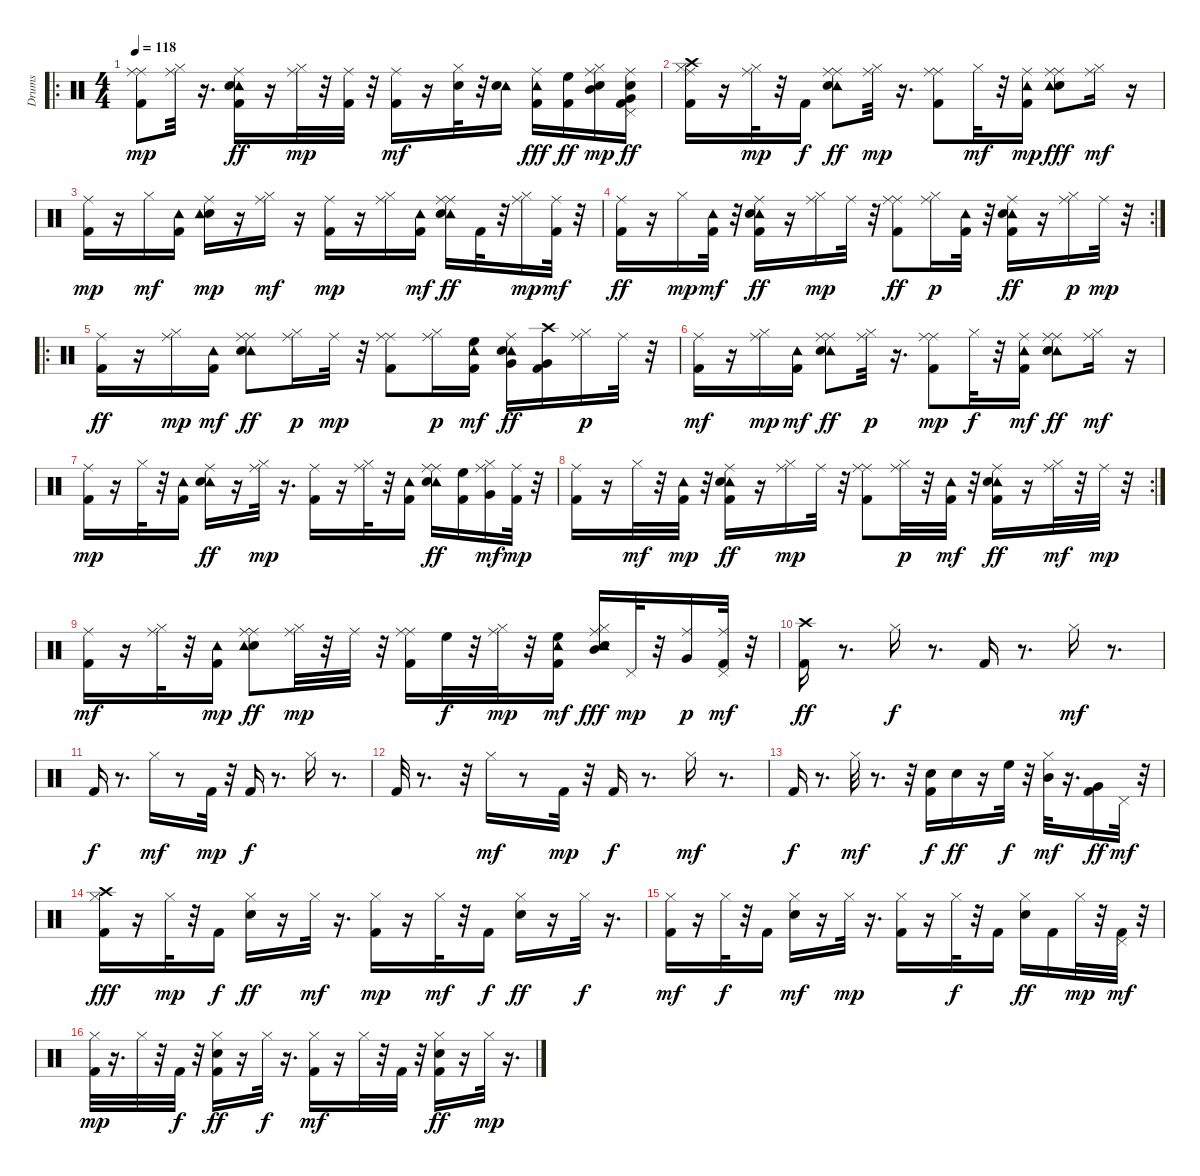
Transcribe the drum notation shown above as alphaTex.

\track ("Drums" "Drums") {instrument percussion}
\staff {score}
\articulation defaults
\ro
\ts (4 4)
\tempo 118
\clef neutral
\ks c
("Kick (hit) 2" "Ride (middle)" "Ride (middle)").8{dy mp} ("Ride (middle)" "Hi-Hat (closed)").32 r.16{d} ("Ride (middle)" "Tambourine (hit)" "Kick (hit) 2" "Electric Snare (hit)").16{dy ff} r.16 ("Hi-Hat (closed)" "Ride (middle)").32{dy mp} r.32 ("Ride (middle)" "Kick (hit) 2").32 r.32 ("Kick (hit) 2" "Ride (middle)").16{dy mf} r.16 ("Hi-Hat (closed)" "Electric Snare (hit)").32 r.32 ("Tambourine (hit)" "Electric Snare (hit)").16 ("Kick (hit) 2" "Ride (middle)" "Tambourine (hit)").16{dy fff} ("Kick (hit) 2" "High Floor Tom (hit)").16{dy ff} ("Mid Tom (hit)" "Ride (middle)" "Hi-Hat (closed)" "Electric Snare (hit)").16{dy mp} ("Ride (middle)" "Kick (hit) 2" "Pedal Hi-Hat (hit)" "Electric Snare (hit)" "Very Low Tom (hit)").16{dy ff} |
("Hi-Hat (closed)" "Kick (hit) 2" "Ride (middle)" "Crash high (hit)").16 r.16 ("Ride (middle)" "Hi-Hat (closed)").32{dy mp} r.32 "Kick (hit) 2".16{dy f} ("Ride (middle)" "Tambourine (hit)" "Ride (middle)" "Electric Snare (hit)").8{dy ff} ("Ride (middle)" "Hi-Hat (closed)").32{dy mp} r.16{d} ("Ride (middle)" "Kick (hit) 2" "Ride (middle)").8 "Hi-Hat (closed)".32{dy mf} r.32 ("Kick (hit) 2" "Ride (middle)" "Tambourine (hit)").16{dy mp} ("Ride (middle)" "Ride (middle)" "Electric Snare (hit)" "Tambourine (hit)").8{dy fff} ("Ride (middle)" "Hi-Hat (closed)").16{dy mf} r.16 |
("Kick (hit) 2" "Ride (middle)").16{dy mp} r.16 "Hi-Hat (closed)".16{dy mf} ("Kick (hit) 2" "Tambourine (hit)").16 ("Electric Snare (hit)" "Tambourine (hit)" "Ride (middle)").16{dy mp} r.16 ("Ride (middle)" "Hi-Hat (closed)").16{dy mf} r.16 ("Kick (hit) 2" "Ride (middle)").16{dy mp} r.16 ("Hi-Hat (closed)" "Ride (middle)").16 ("Kick (hit) 2" "Tambourine (hit)").16{dy mf} ("Ride (middle)" "Ride (middle)" "Tambourine (hit)" "Electric Snare (hit)").16{dy ff} "Kick (hit) 2".32 r.32 ("Hi-Hat (closed)" "Ride (middle)").16{dy mp} ("Ride (middle)" "Kick (hit) 2").32{dy mf} r.32 |
\rc 2
("Ride (middle)" "Kick (hit) 2").16{dy ff} r.16 "Hi-Hat (closed)".16{dy mp} ("Kick (hit) 2" "Tambourine (hit)").32{dy mf} r.32 ("Ride (middle)" "Kick (hit) 2" "Tambourine (hit)" "Electric Snare (hit)").16{dy ff} r.16 ("Hi-Hat (closed)" "Ride (middle)").16{dy mp} "Ride (middle)".32 r.32 ("Ride (middle)" "Ride (middle)" "Kick (hit) 2").8{dy ff} ("Ride (middle)" "Hi-Hat (closed)").16{dy p} ("Kick (hit) 2" "Tambourine (hit)").32 r.32 ("Kick (hit) 2" "Tambourine (hit)" "Ride (middle)" "Electric Snare (hit)").16{dy ff} r.16 ("Hi-Hat (closed)" "Ride (middle)").16{dy p} "Ride (middle)".32{dy mp} r.32 |
\ro
("Ride (middle)" "Kick (hit) 2").16{dy ff} r.16 ("Ride (middle)" "Hi-Hat (closed)").16{dy mp} ("Kick (hit) 2" "Tambourine (hit)").16{dy mf} ("Ride (middle)" "Ride (middle)" "Tambourine (hit)" "Electric Snare (hit)").8{dy ff} ("Hi-Hat (closed)" "Ride (middle)").16{dy p} "Ride (middle)".32{dy mp} r.32 ("Ride (middle)" "Kick (hit) 2" "Ride (middle)").8 ("Hi-Hat (closed)" "Ride (middle)").16{dy p} ("Kick (hit) 2" "Tambourine (hit)" "High Floor Tom (hit)").16{dy mf} ("Very Low Tom (hit)" "Ride (middle)" "Tambourine (hit)" "Electric Snare (hit)").16{dy ff} ("Kick (hit) 2" "Very Low Tom (hit)" "Crash high (hit)").16 ("Hi-Hat (closed)" "Ride (middle)").16{dy p} "Ride (middle)".32 r.32 |
("Ride (middle)" "Kick (hit) 2").16{dy mf} r.16 ("Hi-Hat (closed)" "Ride (middle)").16{dy mp} ("Kick (hit) 2" "Tambourine (hit)").16{dy mf} ("Ride (middle)" "Ride (middle)" "Tambourine (hit)" "Electric Snare (hit)").8{dy ff} ("Hi-Hat (closed)" "Ride (middle)").32{dy p} r.16{d} ("Kick (hit) 2" "Ride (middle)" "Ride (middle)").8{dy mp} "Hi-Hat (closed)".32{dy f} r.32 ("Ride (middle)" "Kick (hit) 2" "Tambourine (hit)").16{dy mf} ("Ride (middle)" "Ride (middle)" "Tambourine (hit)" "Electric Snare (hit)").8{dy ff} ("Ride (middle)" "Hi-Hat (closed)").16{dy mf} r.16 |
("Kick (hit) 2" "Ride (middle)").16{dy mp} r.16 "Hi-Hat (closed)".32 r.32 ("Kick (hit) 2" "Tambourine (hit)").16 ("Tambourine (hit)" "Ride (middle)" "Electric Snare (hit)").16{dy ff} r.16 ("Ride (middle)" "Hi-Hat (closed)").32{dy mp} r.16{d} ("Ride (middle)" "Kick (hit) 2").16 r.16 ("Ride (middle)" "Hi-Hat (closed)").32 r.32 ("Kick (hit) 2" "Tambourine (hit)").16 ("Ride (middle)" "Ride (middle)" "Tambourine (hit)" "Electric Snare (hit)").16{dy ff} ("Kick (hit) 2" "High Floor Tom (hit)").16 ("Ride (middle)" "Very Low Tom (hit)" "Hi-Hat (closed)").16{dy mf} ("Ride (middle)" "Kick (hit) 2").32{dy mp} r.32 |
\rc 2
("Kick (hit) 2" "Ride (middle)").16 r.16 "Hi-Hat (closed)".32{dy mf} r.32 ("Kick (hit) 2" "Tambourine (hit)").32{dy mp} r.32 ("Kick (hit) 2" "Ride (middle)" "Tambourine (hit)" "Electric Snare (hit)").16{dy ff} r.16 ("Ride (middle)" "Hi-Hat (closed)").16{dy mp} "Ride (middle)".32 r.32 ("Ride (middle)" "Kick (hit) 2" "Ride (middle)").8 ("Ride (middle)" "Hi-Hat (closed)").32{dy p} r.32 ("Kick (hit) 2" "Tambourine (hit)").32{dy mf} r.32 ("Kick (hit) 2" "Ride (middle)" "Tambourine (hit)" "Electric Snare (hit)").16{dy ff} r.16 ("Ride (middle)" "Hi-Hat (closed)").32{dy mf} r.32 "Ride (middle)".32{dy mp} r.32 |
("Kick (hit) 2" "Ride (middle)").16{dy mf} r.16 ("Ride (middle)" "Hi-Hat (closed)").32 r.32 ("Kick (hit) 2" "Tambourine (hit)").16{dy mp} ("Ride (middle)" "Ride (middle)" "Electric Snare (hit)" "Tambourine (hit)").8{dy ff} ("Ride (middle)" "Hi-Hat (closed)").32{dy mp} r.32 "Ride (middle)".32 r.32 ("Ride (middle)" "Kick (hit) 2" "Ride (middle)").16 "High Floor Tom (hit)".32{dy f} r.32 ("Ride (middle)" "Hi-Hat (closed)").32{dy mp} r.32 ("Kick (hit) 2" "Tambourine (hit)" "High Floor Tom (hit)").16{dy mf} ("Mid Tom (hit)" "Ride (middle)" "Hi-Hat (closed)" "Electric Snare (hit)" "Tambourine (hit)").16{dy fff} "Pedal Hi-Hat (hit)".32{dy mp} r.32 ("Very Low Tom (hit)" "Ride (middle)").16{dy p} ("Ride (middle)" "Kick (hit) 2" "Pedal Hi-Hat (hit)").32{dy mf} r.32 |
("Kick (hit) 2" "Crash high (hit)").16{dy ff} r.8{d} "Hi-Hat (closed)".16{dy f} r.8{d} "Kick (hit) 2".16 r.8{d} "Hi-Hat (closed)".16{dy mf} r.8{d} |
"Kick (hit) 2".16{dy f} r.8{d} "Hi-Hat (closed)".16{dy mf} r.8 "Kick (hit) 2".32{dy mp} r.32 "Kick (hit) 2".16{dy f} r.8{d} "Hi-Hat (closed)".16 r.8{d} |
"Kick (hit) 2".32 r.8{d} r.32 "Hi-Hat (closed)".16{dy mf} r.8 "Kick (hit) 2".32{dy mp} r.32 "Kick (hit) 2".16{dy f} r.8{d} "Hi-Hat (closed)".16{dy mf} r.8{d} |
"Kick (hit) 2".16{dy f} r.8{d} "Hi-Hat (closed)".32{dy mf} r.8{d} r.32 ("Kick (hit) 2" "Electric Snare (hit)").16{dy f} "Electric Snare (hit)".16{dy ff} r.16 "High Floor Tom (hit)".32{dy f} r.32 ("Mid Tom (hit)" "Hi-Hat (closed)").32{dy mf} r.16{d} ("Kick (hit) 2" "Very Low Tom (hit)").16{dy ff} "Pedal Hi-Hat (hit)".32{dy mf} r.32 |
("Kick (hit) 2" "Hi-Hat (closed)" "Crash high (hit)").16{dy fff} r.16 "Hi-Hat (closed)".32{dy mp} r.32 "Kick (hit) 2".16{dy f} ("Hi-Hat (closed)" "Electric Snare (hit)").16{dy ff} r.16 "Hi-Hat (closed)".32{dy mf} r.16{d} ("Kick (hit) 2" "Hi-Hat (closed)").16{dy mp} r.16 "Hi-Hat (closed)".32{dy mf} r.32 "Kick (hit) 2".16{dy f} ("Hi-Hat (closed)" "Electric Snare (hit)").16{dy ff} r.16 "Hi-Hat (closed)".32{dy f} r.16{d} |
("Kick (hit) 2" "Hi-Hat (closed)").16{dy mf} r.16 "Hi-Hat (closed)".32{dy f} r.32 "Kick (hit) 2".16 ("Electric Snare (hit)" "Hi-Hat (closed)").16{dy mf} r.16 "Hi-Hat (closed)".32{dy mp} r.16{d} ("Kick (hit) 2" "Hi-Hat (closed)").16 r.16 "Hi-Hat (closed)".32{dy f} r.32 "Kick (hit) 2".16 ("Hi-Hat (closed)" "Electric Snare (hit)").16{dy ff} "Kick (hit) 2".16 "Hi-Hat (closed)".32{dy mp} r.32 ("Kick (hit) 2" "Pedal Hi-Hat (hit)").32{dy mf} r.32 |
("Kick (hit) 2" "Hi-Hat (closed)").32{dy mp} r.16{d} "Hi-Hat (closed)".32 r.32 "Kick (hit) 2".32{dy f} r.32 ("Kick (hit) 2" "Hi-Hat (closed)" "Electric Snare (hit)").16{dy ff} r.16 "Hi-Hat (closed)".32{dy f} r.16{d} ("Kick (hit) 2" "Hi-Hat (closed)").16{dy mf} r.16 "Hi-Hat (closed)".32 r.32 "Kick (hit) 2".32 r.32 ("Kick (hit) 2" "Hi-Hat (closed)" "Electric Snare (hit)").16{dy ff} r.16 "Hi-Hat (closed)".32{dy mp} r.16{d}
